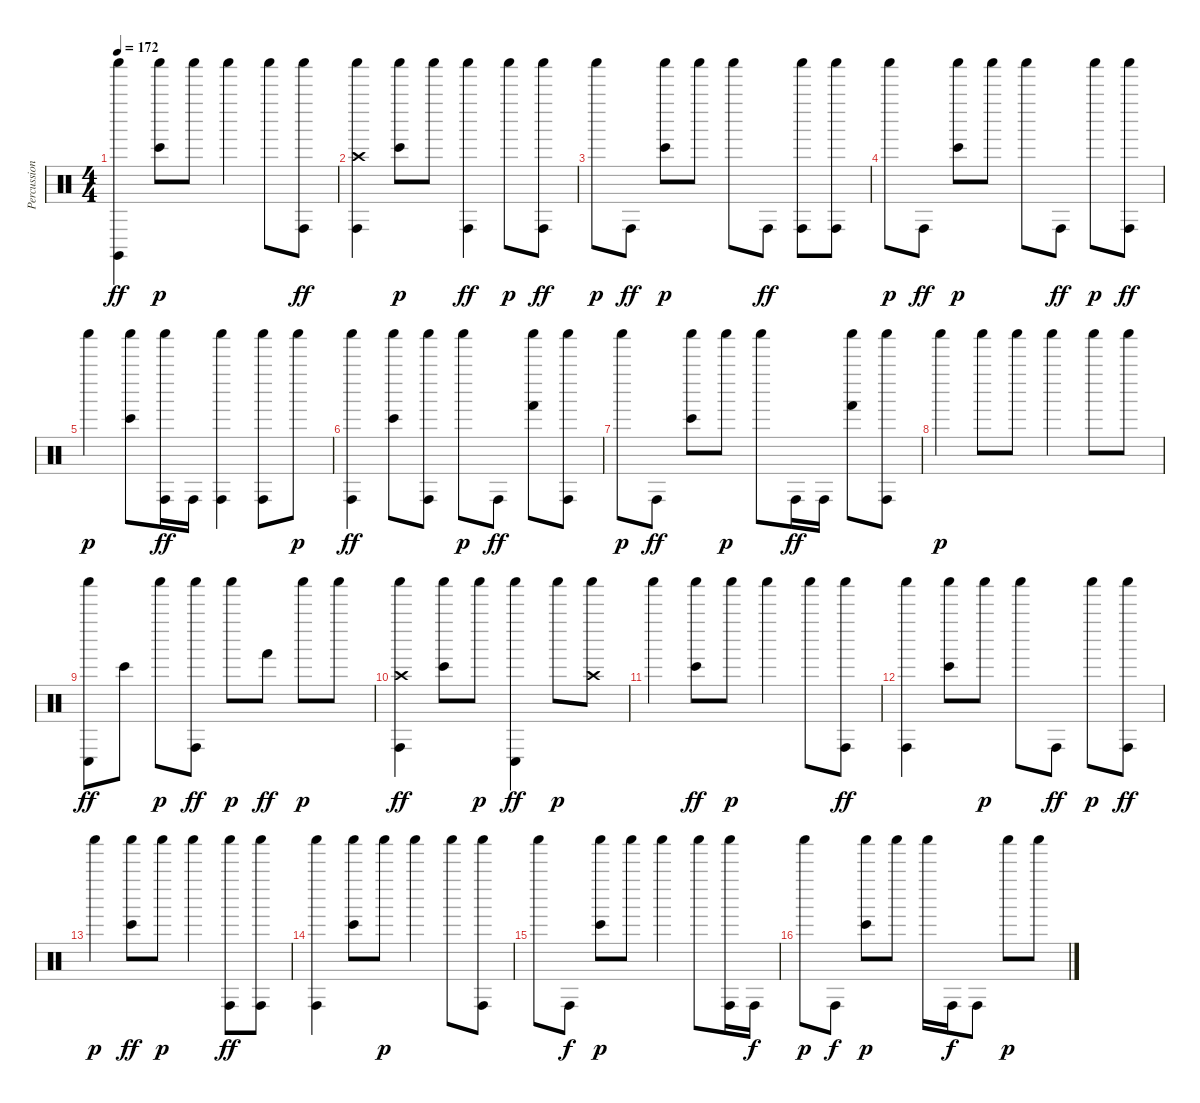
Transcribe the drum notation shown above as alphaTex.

\track ("Percussion" "Percussion") {instrument percussion}
\staff {score}
\articulation defaults
\ts (4 4)
\tempo 172
\clef neutral
\ks c
("Shaker (hit)" "Claves (hit)").4{dy ff} ("Shaker (hit)" "Bongo High (hit)").8{dy p} "Shaker (hit)".8 "Shaker (hit)".4 "Shaker (hit)".8 ("Shaker (hit)" "Conga high (hit)").8{dy ff} |
("Shaker (hit)" "Crash high (hit)" "Conga high (hit)").4 ("Shaker (hit)" "Bongo High (hit)").8{dy p} "Shaker (hit)".8 ("Shaker (hit)" "Conga high (hit)").4{dy ff} "Shaker (hit)".8{dy p} ("Shaker (hit)" "Conga high (hit)").8{dy ff} |
"Shaker (hit)".8{dy p} "Conga high (hit)".8{dy ff} ("Shaker (hit)" "Bongo High (hit)").8{dy p} "Shaker (hit)".8 "Shaker (hit)".8 "Conga high (hit)".8{dy ff} ("Shaker (hit)" "Conga high (hit)").8 ("Shaker (hit)" "Conga high (hit)").8 |
"Shaker (hit)".8{dy p} "Conga high (hit)".8{dy ff} ("Shaker (hit)" "Bongo High (hit)").8{dy p} "Shaker (hit)".8 "Shaker (hit)".8 "Conga high (hit)".8{dy ff} "Shaker (hit)".8{dy p} ("Shaker (hit)" "Conga high (hit)").8{dy ff} |
"Shaker (hit)".4{dy p} ("Shaker (hit)" "Bongo High (hit)").8 ("Shaker (hit)" "Conga high (hit)").16{dy ff} "Conga high (hit)".16 ("Shaker (hit)" "Conga high (hit)").4 ("Shaker (hit)" "Conga high (hit)").8 "Shaker (hit)".8{dy p} |
("Shaker (hit)" "Conga high (hit)").4{dy ff} ("Shaker (hit)" "Bongo High (hit)").8 ("Shaker (hit)" "Conga high (hit)").8 "Shaker (hit)".8{dy p} "Conga high (hit)".8{dy ff} ("Shaker (hit)" "Hand (hit)").8 ("Shaker (hit)" "Conga high (hit)").8 |
"Shaker (hit)".8{dy p} "Conga high (hit)".8{dy ff} ("Shaker (hit)" "Bongo High (hit)").8 "Shaker (hit)".8{dy p} "Shaker (hit)".8 "Conga high (hit)".16{dy ff} "Conga high (hit)".16 ("Shaker (hit)" "Hand (hit)").8 ("Shaker (hit)" "Conga high (hit)").8 |
"Shaker (hit)".4{dy p} "Shaker (hit)".8 "Shaker (hit)".8 "Shaker (hit)".4 "Shaker (hit)".8 "Shaker (hit)".8 |
("Shaker (hit)" "Conga low (hit)").8{dy ff} "Bongo High (hit)".8 "Shaker (hit)".8{dy p} ("Shaker (hit)" "Conga high (hit)").8{dy ff} "Shaker (hit)".8{dy p} "Hand (hit)".8{dy ff} "Shaker (hit)".8{dy p} "Shaker (hit)".8 |
("Shaker (hit)" "Crash high (hit)" "Conga high (hit)").4{dy ff} ("Shaker (hit)" "Bongo High (hit)").8 "Shaker (hit)".8{dy p} ("Shaker (hit)" "Conga low (hit)").4{dy ff} "Shaker (hit)".8{dy p} ("Shaker (hit)" "Crash high (hit)").8 |
"Shaker (hit)".4 ("Shaker (hit)" "Bongo High (hit)").8{dy ff} "Shaker (hit)".8{dy p} "Shaker (hit)".4 "Shaker (hit)".8 ("Shaker (hit)" "Conga high (hit)").8{dy ff} |
("Shaker (hit)" "Conga high (hit)").4 ("Shaker (hit)" "Bongo High (hit)").8 "Shaker (hit)".8{dy p} "Shaker (hit)".8 "Conga high (hit)".8{dy ff} "Shaker (hit)".8{dy p} ("Shaker (hit)" "Conga high (hit)").8{dy ff} |
"Shaker (hit)".4{dy p} ("Shaker (hit)" "Bongo High (hit)").8{dy ff} "Shaker (hit)".8{dy p} "Shaker (hit)".4 ("Shaker (hit)" "Conga high (hit)").8{dy ff} ("Shaker (hit)" "Conga high (hit)").8 |
("Shaker (hit)" "Conga high (hit)").4 ("Shaker (hit)" "Bongo High (hit)").8 "Shaker (hit)".8{dy p} "Shaker (hit)".4 "Shaker (hit)".8 ("Shaker (hit)" "Conga high (hit)").8 |
"Shaker (hit)".8 "Conga high (hit)".8{dy f} ("Shaker (hit)" "Bongo High (hit)").8{dy p} "Shaker (hit)".8 "Shaker (hit)".4 "Shaker (hit)".8 ("Shaker (hit)" "Conga high (hit)").16 "Conga high (hit)".16{dy f} |
"Shaker (hit)".8{dy p} "Conga high (hit)".8{dy f} ("Shaker (hit)" "Bongo High (hit)").8{dy p} "Shaker (hit)".8 "Shaker (hit)".16 "Conga high (hit)".16{dy f} "Conga high (hit)".8 "Shaker (hit)".8{dy p} "Shaker (hit)".8
